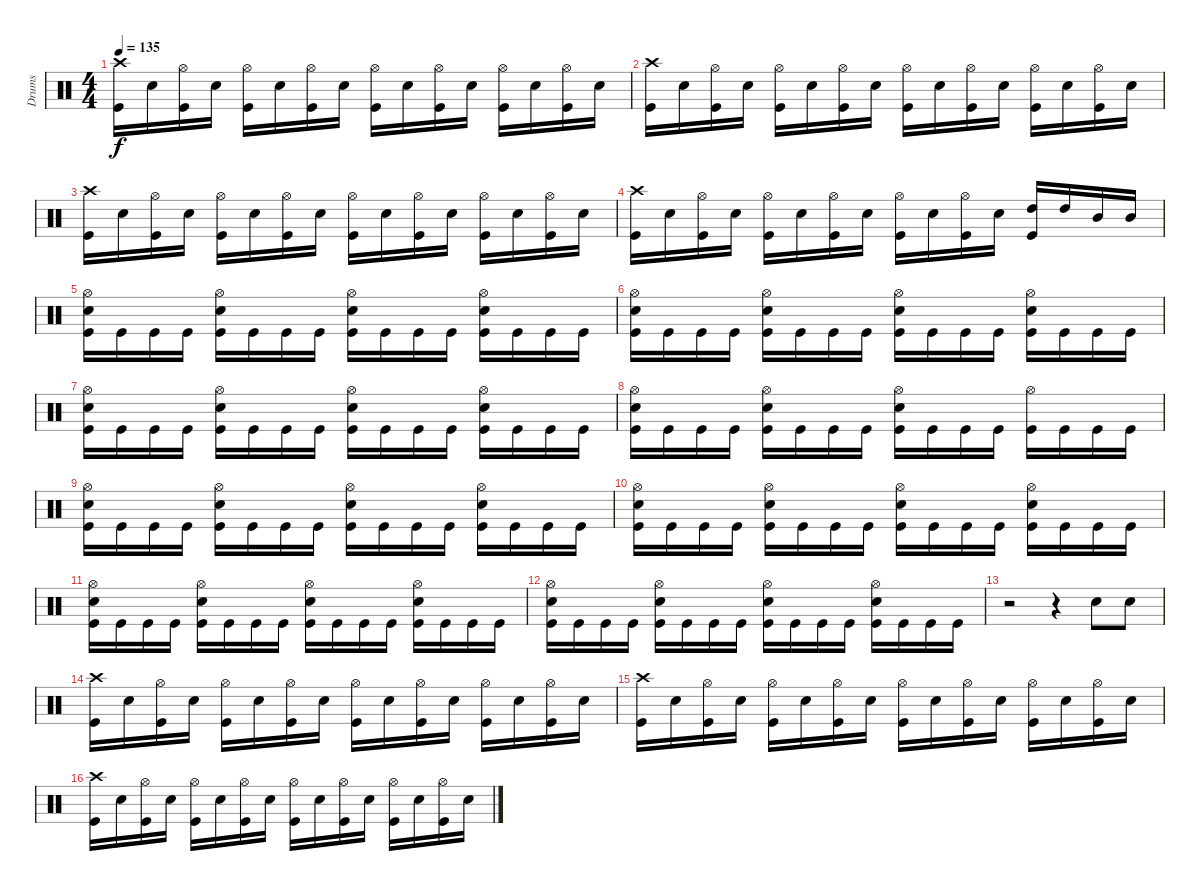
\track ("Drums" "Drums") {instrument percussion}
\staff {score}
\articulation defaults
\ts (4 4)
\tempo 135
\clef neutral
\ks c
("Crash high (hit)" "Kick (hit)").16{dy f} "Snare (hit) 2".16 ("Hi-Hat (open)" "Kick (hit)").16 "Snare (hit) 2".16 ("Hi-Hat (open)" "Kick (hit)").16 "Snare (hit) 2".16 ("Hi-Hat (open)" "Kick (hit)").16 "Snare (hit) 2".16 ("Hi-Hat (open)" "Kick (hit)").16 "Snare (hit) 2".16 ("Hi-Hat (open)" "Kick (hit)").16 "Snare (hit) 2".16 ("Hi-Hat (open)" "Kick (hit)").16 "Snare (hit) 2".16 ("Hi-Hat (open)" "Kick (hit)").16 "Snare (hit) 2".16 |
("Crash high (hit)" "Kick (hit)").16 "Snare (hit) 2".16 ("Hi-Hat (open)" "Kick (hit)").16 "Snare (hit) 2".16 ("Hi-Hat (open)" "Kick (hit)").16 "Snare (hit) 2".16 ("Hi-Hat (open)" "Kick (hit)").16 "Snare (hit) 2".16 ("Hi-Hat (open)" "Kick (hit)").16 "Snare (hit) 2".16 ("Hi-Hat (open)" "Kick (hit)").16 "Snare (hit) 2".16 ("Hi-Hat (open)" "Kick (hit)").16 "Snare (hit) 2".16 ("Hi-Hat (open)" "Kick (hit)").16 "Snare (hit) 2".16 |
("Crash high (hit)" "Kick (hit)").16 "Snare (hit) 2".16 ("Hi-Hat (open)" "Kick (hit)").16 "Snare (hit) 2".16 ("Hi-Hat (open)" "Kick (hit)").16 "Snare (hit) 2".16 ("Hi-Hat (open)" "Kick (hit)").16 "Snare (hit) 2".16 ("Hi-Hat (open)" "Kick (hit)").16 "Snare (hit) 2".16 ("Hi-Hat (open)" "Kick (hit)").16 "Snare (hit) 2".16 ("Hi-Hat (open)" "Kick (hit)").16 "Snare (hit) 2".16 ("Hi-Hat (open)" "Kick (hit)").16 "Snare (hit) 2".16 |
("Crash high (hit)" "Kick (hit)").16 "Snare (hit) 2".16 ("Hi-Hat (open)" "Kick (hit)").16 "Snare (hit) 2".16 ("Hi-Hat (open)" "Kick (hit)").16 "Snare (hit) 2".16 ("Hi-Hat (open)" "Kick (hit)").16 "Snare (hit) 2".16 ("Hi-Hat (open)" "Kick (hit)").16 "Snare (hit) 2".16 ("Hi-Hat (open)" "Kick (hit)").16 "Snare (hit) 2".16 ("High Tom (hit)" "Kick (hit)").16 "High Tom (hit)".16 "Mid Tom (hit)".16 "Mid Tom (hit)".16 |
("Hi-Hat (open)" "Snare (hit) 2" "Kick (hit)").16 "Kick (hit)".16 "Kick (hit)".16 "Kick (hit)".16 ("Hi-Hat (open)" "Snare (hit) 2" "Kick (hit)").16 "Kick (hit)".16 "Kick (hit)".16 "Kick (hit)".16 ("Hi-Hat (open)" "Snare (hit) 2" "Kick (hit)").16 "Kick (hit)".16 "Kick (hit)".16 "Kick (hit)".16 ("Hi-Hat (open)" "Snare (hit) 2" "Kick (hit)").16 "Kick (hit)".16 "Kick (hit)".16 "Kick (hit)".16 |
("Hi-Hat (open)" "Snare (hit) 2" "Kick (hit)").16 "Kick (hit)".16 "Kick (hit)".16 "Kick (hit)".16 ("Hi-Hat (open)" "Snare (hit) 2" "Kick (hit)").16 "Kick (hit)".16 "Kick (hit)".16 "Kick (hit)".16 ("Hi-Hat (open)" "Snare (hit) 2" "Kick (hit)").16 "Kick (hit)".16 "Kick (hit)".16 "Kick (hit)".16 ("Hi-Hat (open)" "Snare (hit) 2" "Kick (hit)").16 "Kick (hit)".16 "Kick (hit)".16 "Kick (hit)".16 |
("Hi-Hat (open)" "Snare (hit) 2" "Kick (hit)").16 "Kick (hit)".16 "Kick (hit)".16 "Kick (hit)".16 ("Hi-Hat (open)" "Snare (hit) 2" "Kick (hit)").16 "Kick (hit)".16 "Kick (hit)".16 "Kick (hit)".16 ("Hi-Hat (open)" "Snare (hit) 2" "Kick (hit)").16 "Kick (hit)".16 "Kick (hit)".16 "Kick (hit)".16 ("Hi-Hat (open)" "Snare (hit) 2" "Kick (hit)").16 "Kick (hit)".16 "Kick (hit)".16 "Kick (hit)".16 |
("Hi-Hat (open)" "Snare (hit) 2" "Kick (hit)").16 "Kick (hit)".16 "Kick (hit)".16 "Kick (hit)".16 ("Hi-Hat (open)" "Snare (hit) 2" "Kick (hit)").16 "Kick (hit)".16 "Kick (hit)".16 "Kick (hit)".16 ("Hi-Hat (open)" "Snare (hit) 2" "Kick (hit)").16 "Kick (hit)".16 "Kick (hit)".16 "Kick (hit)".16 ("Hi-Hat (open)" "Kick (hit)").16 "Kick (hit)".16 "Kick (hit)".16 "Kick (hit)".16 |
("Hi-Hat (open)" "Snare (hit) 2" "Kick (hit)").16 "Kick (hit)".16 "Kick (hit)".16 "Kick (hit)".16 ("Hi-Hat (open)" "Snare (hit) 2" "Kick (hit)").16 "Kick (hit)".16 "Kick (hit)".16 "Kick (hit)".16 ("Hi-Hat (open)" "Snare (hit) 2" "Kick (hit)").16 "Kick (hit)".16 "Kick (hit)".16 "Kick (hit)".16 ("Hi-Hat (open)" "Snare (hit) 2" "Kick (hit)").16 "Kick (hit)".16 "Kick (hit)".16 "Kick (hit)".16 |
("Hi-Hat (open)" "Snare (hit) 2" "Kick (hit)").16 "Kick (hit)".16 "Kick (hit)".16 "Kick (hit)".16 ("Hi-Hat (open)" "Snare (hit) 2" "Kick (hit)").16 "Kick (hit)".16 "Kick (hit)".16 "Kick (hit)".16 ("Hi-Hat (open)" "Snare (hit) 2" "Kick (hit)").16 "Kick (hit)".16 "Kick (hit)".16 "Kick (hit)".16 ("Hi-Hat (open)" "Snare (hit) 2" "Kick (hit)").16 "Kick (hit)".16 "Kick (hit)".16 "Kick (hit)".16 |
("Hi-Hat (open)" "Snare (hit) 2" "Kick (hit)").16 "Kick (hit)".16 "Kick (hit)".16 "Kick (hit)".16 ("Hi-Hat (open)" "Snare (hit) 2" "Kick (hit)").16 "Kick (hit)".16 "Kick (hit)".16 "Kick (hit)".16 ("Hi-Hat (open)" "Snare (hit) 2" "Kick (hit)").16 "Kick (hit)".16 "Kick (hit)".16 "Kick (hit)".16 ("Hi-Hat (open)" "Snare (hit) 2" "Kick (hit)").16 "Kick (hit)".16 "Kick (hit)".16 "Kick (hit)".16 |
("Hi-Hat (open)" "Snare (hit) 2" "Kick (hit)").16 "Kick (hit)".16 "Kick (hit)".16 "Kick (hit)".16 ("Hi-Hat (open)" "Snare (hit) 2" "Kick (hit)").16 "Kick (hit)".16 "Kick (hit)".16 "Kick (hit)".16 ("Hi-Hat (open)" "Snare (hit) 2" "Kick (hit)").16 "Kick (hit)".16 "Kick (hit)".16 "Kick (hit)".16 ("Hi-Hat (open)" "Snare (hit) 2" "Kick (hit)").16 "Kick (hit)".16 "Kick (hit)".16 "Kick (hit)".16 |
r.2 r.4 "Snare (hit) 2".8 "Snare (hit) 2".8 |
("Crash high (hit)" "Kick (hit)").16 "Snare (hit) 2".16 ("Hi-Hat (open)" "Kick (hit)").16 "Snare (hit) 2".16 ("Hi-Hat (open)" "Kick (hit)").16 "Snare (hit) 2".16 ("Hi-Hat (open)" "Kick (hit)").16 "Snare (hit) 2".16 ("Hi-Hat (open)" "Kick (hit)").16 "Snare (hit) 2".16 ("Hi-Hat (open)" "Kick (hit)").16 "Snare (hit) 2".16 ("Hi-Hat (open)" "Kick (hit)").16 "Snare (hit) 2".16 ("Hi-Hat (open)" "Kick (hit)").16 "Snare (hit) 2".16 |
("Crash high (hit)" "Kick (hit)").16 "Snare (hit) 2".16 ("Hi-Hat (open)" "Kick (hit)").16 "Snare (hit) 2".16 ("Hi-Hat (open)" "Kick (hit)").16 "Snare (hit) 2".16 ("Hi-Hat (open)" "Kick (hit)").16 "Snare (hit) 2".16 ("Hi-Hat (open)" "Kick (hit)").16 "Snare (hit) 2".16 ("Hi-Hat (open)" "Kick (hit)").16 "Snare (hit) 2".16 ("Hi-Hat (open)" "Kick (hit)").16 "Snare (hit) 2".16 ("Hi-Hat (open)" "Kick (hit)").16 "Snare (hit) 2".16 |
("Crash high (hit)" "Kick (hit)").16 "Snare (hit) 2".16 ("Hi-Hat (open)" "Kick (hit)").16 "Snare (hit) 2".16 ("Hi-Hat (open)" "Kick (hit)").16 "Snare (hit) 2".16 ("Hi-Hat (open)" "Kick (hit)").16 "Snare (hit) 2".16 ("Hi-Hat (open)" "Kick (hit)").16 "Snare (hit) 2".16 ("Hi-Hat (open)" "Kick (hit)").16 "Snare (hit) 2".16 ("Hi-Hat (open)" "Kick (hit)").16 "Snare (hit) 2".16 ("Hi-Hat (open)" "Kick (hit)").16 "Snare (hit) 2".16
